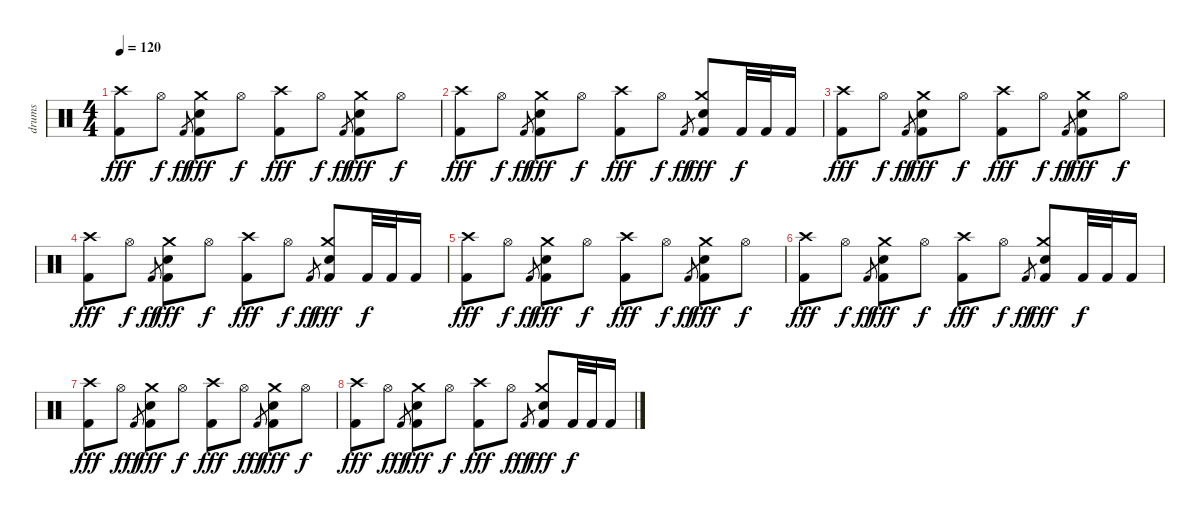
\track ("drums" "drums") {instrument percussion}
\staff {score}
\articulation defaults
\ts (4 4)
\tempo 120
\clef neutral
\ks c
("Crash high (hit)" "Kick (hit) 2").8{dy fff} "Hi-Hat (open)".8{dy f} "Kick (hit) 2".8{gr dy ff} ("Crash medium (hit)" "Electric Snare (hit)" "Kick (hit) 2").8{dy fff} "Hi-Hat (open)".8{dy f} ("Crash high (hit)" "Kick (hit) 2").8{dy fff} "Hi-Hat (open)".8{dy f} "Kick (hit) 2".8{gr dy ff} ("Crash medium (hit)" "Electric Snare (hit)" "Kick (hit) 2").8{dy fff} "Hi-Hat (open)".8{dy f} |
("Crash high (hit)" "Kick (hit) 2").8{dy fff} "Hi-Hat (open)".8{dy f} "Kick (hit) 2".8{gr dy ff} ("Crash medium (hit)" "Electric Snare (hit)" "Kick (hit) 2").8{dy fff} "Hi-Hat (open)".8{dy f} ("Crash high (hit)" "Kick (hit) 2").8{dy fff} "Hi-Hat (open)".8{dy f} "Kick (hit) 2".8{gr dy ff} ("Crash medium (hit)" "Electric Snare (hit)" "Kick (hit) 2").8{dy fff} "Kick (hit) 2".32{dy f} "Kick (hit) 2".32 "Kick (hit) 2".16 |
("Crash high (hit)" "Kick (hit) 2").8{dy fff} "Hi-Hat (open)".8{dy f} "Kick (hit) 2".8{gr dy ff} ("Crash medium (hit)" "Electric Snare (hit)" "Kick (hit) 2").8{dy fff} "Hi-Hat (open)".8{dy f} ("Crash high (hit)" "Kick (hit) 2").8{dy fff} "Hi-Hat (open)".8{dy f} "Kick (hit) 2".8{gr dy ff} ("Crash medium (hit)" "Electric Snare (hit)" "Kick (hit) 2").8{dy fff} "Hi-Hat (open)".8{dy f} |
("Crash high (hit)" "Kick (hit) 2").8{dy fff} "Hi-Hat (open)".8{dy f} "Kick (hit) 2".8{gr dy ff} ("Crash medium (hit)" "Electric Snare (hit)" "Kick (hit) 2").8{dy fff} "Hi-Hat (open)".8{dy f} ("Crash high (hit)" "Kick (hit) 2").8{dy fff} "Hi-Hat (open)".8{dy f} "Kick (hit) 2".8{gr dy ff} ("Crash medium (hit)" "Electric Snare (hit)" "Kick (hit) 2").8{dy fff} "Kick (hit) 2".32{dy f} "Kick (hit) 2".32 "Kick (hit) 2".16 |
("Crash high (hit)" "Kick (hit) 2").8{dy fff} "Hi-Hat (open)".8{dy f} "Kick (hit) 2".8{gr dy ff} ("Crash medium (hit)" "Electric Snare (hit)" "Kick (hit) 2").8{dy fff} "Hi-Hat (open)".8{dy f} ("Crash high (hit)" "Kick (hit) 2").8{dy fff} "Hi-Hat (open)".8{dy f} "Kick (hit) 2".8{gr dy ff} ("Crash medium (hit)" "Electric Snare (hit)" "Kick (hit) 2").8{dy fff} "Hi-Hat (open)".8{dy f} |
("Crash high (hit)" "Kick (hit) 2").8{dy fff} "Hi-Hat (open)".8{dy f} "Kick (hit) 2".8{gr dy ff} ("Crash medium (hit)" "Electric Snare (hit)" "Kick (hit) 2").8{dy fff} "Hi-Hat (open)".8{dy f} ("Crash high (hit)" "Kick (hit) 2").8{dy fff} "Hi-Hat (open)".8{dy f} "Kick (hit) 2".8{gr dy ff} ("Crash medium (hit)" "Electric Snare (hit)" "Kick (hit) 2").8{dy fff} "Kick (hit) 2".32{dy f} "Kick (hit) 2".32 "Kick (hit) 2".16 |
("Crash high (hit)" "Kick (hit) 2").8{dy fff} "Hi-Hat (open)".8{dy f} "Kick (hit) 2".8{gr dy ff} ("Crash medium (hit)" "Electric Snare (hit)" "Kick (hit) 2").8{dy fff} "Hi-Hat (open)".8{dy f} ("Crash high (hit)" "Kick (hit) 2").8{dy fff} "Hi-Hat (open)".8{dy f} "Kick (hit) 2".8{gr dy ff} ("Crash medium (hit)" "Electric Snare (hit)" "Kick (hit) 2").8{dy fff} "Hi-Hat (open)".8{dy f} |
("Crash high (hit)" "Kick (hit) 2").8{dy fff} "Hi-Hat (open)".8{dy f} "Kick (hit) 2".8{gr dy ff} ("Crash medium (hit)" "Electric Snare (hit)" "Kick (hit) 2").8{dy fff} "Hi-Hat (open)".8{dy f} ("Crash high (hit)" "Kick (hit) 2").8{dy fff} "Hi-Hat (open)".8{dy f} "Kick (hit) 2".8{gr dy ff} ("Crash medium (hit)" "Electric Snare (hit)" "Kick (hit) 2").8{dy fff} "Kick (hit) 2".32{dy f} "Kick (hit) 2".32 "Kick (hit) 2".16
